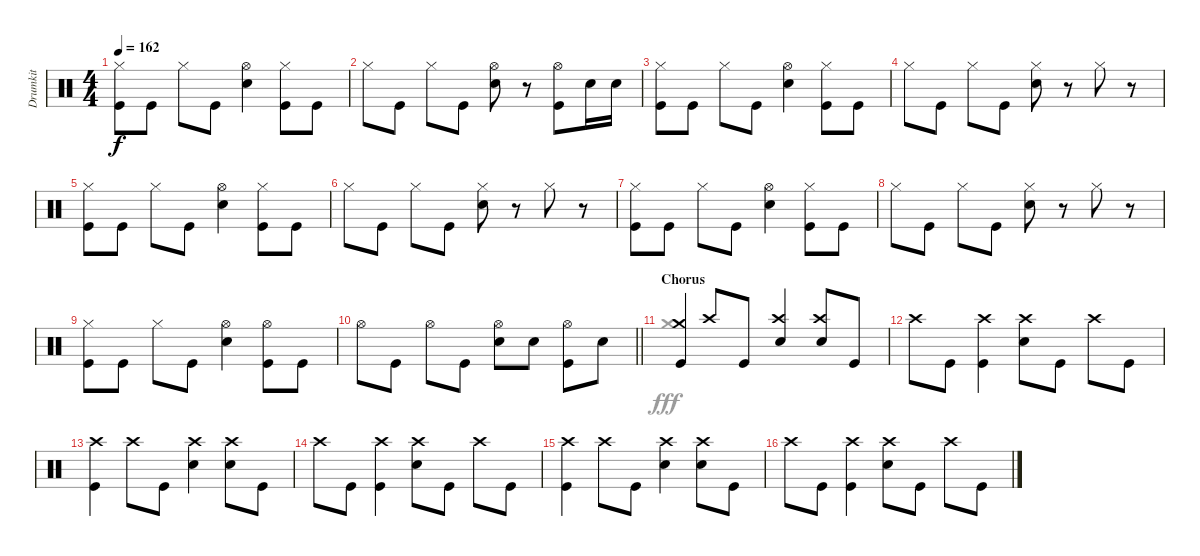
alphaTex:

\track ("Drumkit" "Drumkit") {instrument percussion}
\staff {score}
\articulation defaults
\voice
\ts (4 4)
\tempo 162
\clef neutral
\ks c
("Kick (hit)" "Hi-Hat (closed)").8{dy f} "Kick (hit)".8 "Hi-Hat (closed)".8 "Kick (hit)".8 ("Snare (hit) 2" "Hi-Hat (open)").4 ("Kick (hit)" "Hi-Hat (closed)").8 "Kick (hit)".8 |
"Hi-Hat (closed)".8 "Kick (hit)".8 "Hi-Hat (closed)".8 "Kick (hit)".8 ("Snare (hit) 2" "Hi-Hat (open)").8 r.8 ("Hi-Hat (open)" "Kick (hit)").8 "Snare (hit) 2".16 "Snare (hit) 2".16 |
("Kick (hit)" "Hi-Hat (closed)").8 "Kick (hit)".8 "Hi-Hat (closed)".8 "Kick (hit)".8 ("Snare (hit) 2" "Hi-Hat (open)").4 ("Kick (hit)" "Hi-Hat (closed)").8 "Kick (hit)".8 |
"Hi-Hat (closed)".8 "Kick (hit)".8 "Hi-Hat (closed)".8 "Kick (hit)".8 ("Snare (hit) 2" "Hi-Hat (closed)").8 r.8 "Hi-Hat (closed)".8 r.8 |
("Kick (hit)" "Hi-Hat (closed)").8 "Kick (hit)".8 "Hi-Hat (closed)".8 "Kick (hit)".8 ("Snare (hit) 2" "Hi-Hat (open)").4 ("Kick (hit)" "Hi-Hat (closed)").8 "Kick (hit)".8 |
"Hi-Hat (closed)".8 "Kick (hit)".8 "Hi-Hat (closed)".8 "Kick (hit)".8 ("Snare (hit) 2" "Hi-Hat (closed)").8 r.8 "Hi-Hat (closed)".8 r.8 |
("Kick (hit)" "Hi-Hat (closed)").8 "Kick (hit)".8 "Hi-Hat (closed)".8 "Kick (hit)".8 ("Snare (hit) 2" "Hi-Hat (open)").4 ("Kick (hit)" "Hi-Hat (closed)").8 "Kick (hit)".8 |
"Hi-Hat (closed)".8 "Kick (hit)".8 "Hi-Hat (closed)".8 "Kick (hit)".8 ("Snare (hit) 2" "Hi-Hat (closed)").8 r.8 "Hi-Hat (closed)".8 r.8 |
("Kick (hit)" "Hi-Hat (closed)").8 "Kick (hit)".8 "Hi-Hat (closed)".8 "Kick (hit)".8 ("Snare (hit) 2" "Hi-Hat (open)").4 ("Kick (hit)" "Hi-Hat (open)").8 "Kick (hit)".8 |
\barLineRight lightlight "Hi-Hat (open)".8 "Kick (hit)".8 "Hi-Hat (open)".8 "Kick (hit)".8
("Snare (hit) 2" "Hi-Hat (open)").8 "Snare (hit) 2".8 ("Hi-Hat (open)" "Kick (hit)").8 "Snare (hit) 2".8 |
\section ("" "Chorus")
("Kick (hit)" "Crash medium (hit)").4 "Crash high (hit)".8 "Kick (hit)".8 ("Snare (hit) 2" "Crash high (hit)").4 ("Snare (hit) 2" "Crash high (hit)").8 "Kick (hit)".8 |
"Crash high (hit)".8 "Kick (hit)".8 ("Kick (hit)" "Crash high (hit)").4 ("Snare (hit) 2" "Crash high (hit)").8 "Kick (hit)".8 "Crash high (hit)".8 "Kick (hit)".8 |
("Kick (hit)" "Crash high (hit)").4 "Crash high (hit)".8 "Kick (hit)".8 ("Snare (hit) 2" "Crash high (hit)").4 ("Snare (hit) 2" "Crash high (hit)").8 "Kick (hit)".8 |
"Crash high (hit)".8 "Kick (hit)".8 ("Kick (hit)" "Crash high (hit)").4 ("Snare (hit) 2" "Crash high (hit)").8 "Kick (hit)".8 "Crash high (hit)".8 "Kick (hit)".8 |
("Kick (hit)" "Crash high (hit)").4 "Crash high (hit)".8 "Kick (hit)".8 ("Snare (hit) 2" "Crash high (hit)").4 ("Snare (hit) 2" "Crash high (hit)").8 "Kick (hit)".8 |
"Crash high (hit)".8 "Kick (hit)".8 ("Kick (hit)" "Crash high (hit)").4 ("Snare (hit) 2" "Crash high (hit)").8 "Kick (hit)".8 "Crash high (hit)".8 "Kick (hit)".8
\voice
\clef neutral
\ottava regular
\simile none
\ks c
|
|
|
|
|
|
|
|
|
\barLineRight lightlight
|
"Crash medium (hit)".1{dy fff} |
|
|
|
|
